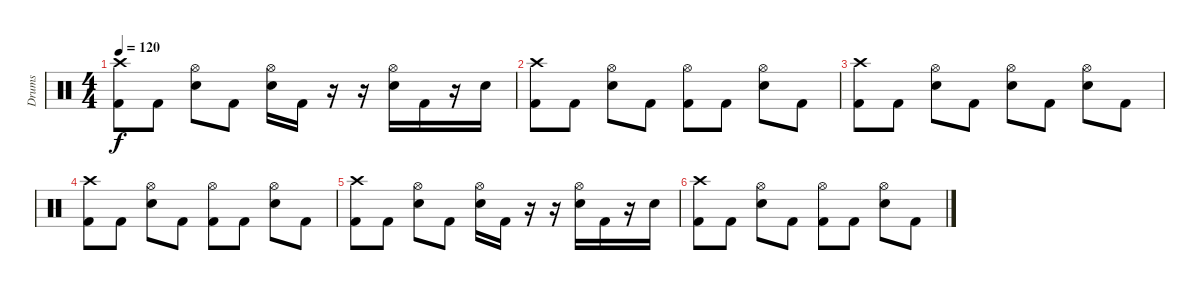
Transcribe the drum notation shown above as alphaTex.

\track ("Drums" "Drums") {instrument percussion}
\staff {score}
\articulation defaults
\ts (4 4)
\tempo 120
\clef neutral
\ks c
("Crash high (hit)" "Kick (hit) 2").8{dy f} "Kick (hit) 2".8 ("Hi-Hat (open)" "Electric Snare (hit)").8 "Kick (hit) 2".8 ("Hi-Hat (open)" "Electric Snare (hit)").16 "Kick (hit) 2".16 r.16 r.16 ("Hi-Hat (open)" "Electric Snare (hit)").16 "Kick (hit) 2".16 r.16 "Electric Snare (hit)".16 |
("Crash high (hit)" "Kick (hit) 2").8 "Kick (hit) 2".8 ("Hi-Hat (open)" "Electric Snare (hit)").8 "Kick (hit) 2".8 ("Hi-Hat (open)" "Kick (hit) 2").8 "Kick (hit) 2".8 ("Hi-Hat (open)" "Electric Snare (hit)").8 "Kick (hit) 2".8 |
("Crash high (hit)" "Kick (hit) 2").8{volume 9} "Kick (hit) 2".8 ("Hi-Hat (open)" "Electric Snare (hit)").8 "Kick (hit) 2".8 ("Hi-Hat (open)" "Electric Snare (hit)").8 "Kick (hit) 2".8 ("Hi-Hat (open)" "Electric Snare (hit)").8 "Kick (hit) 2".8 |
("Crash high (hit)" "Kick (hit) 2").8{volume 5} "Kick (hit) 2".8 ("Hi-Hat (open)" "Electric Snare (hit)").8 "Kick (hit) 2".8 ("Hi-Hat (open)" "Kick (hit) 2").8 "Kick (hit) 2".8 ("Hi-Hat (open)" "Electric Snare (hit)").8 "Kick (hit) 2".8 |
("Crash high (hit)" "Kick (hit) 2").8{volume 2} "Kick (hit) 2".8 ("Hi-Hat (open)" "Electric Snare (hit)").8 "Kick (hit) 2".8 ("Hi-Hat (open)" "Electric Snare (hit)").16 "Kick (hit) 2".16 r.16 r.16 ("Hi-Hat (open)" "Electric Snare (hit)").16 "Kick (hit) 2".16 r.16 "Electric Snare (hit)".16 |
("Crash high (hit)" "Kick (hit) 2").8{volume 0} "Kick (hit) 2".8 ("Hi-Hat (open)" "Electric Snare (hit)").8 "Kick (hit) 2".8 ("Hi-Hat (open)" "Kick (hit) 2").8 "Kick (hit) 2".8 ("Hi-Hat (open)" "Electric Snare (hit)").8 "Kick (hit) 2".8
